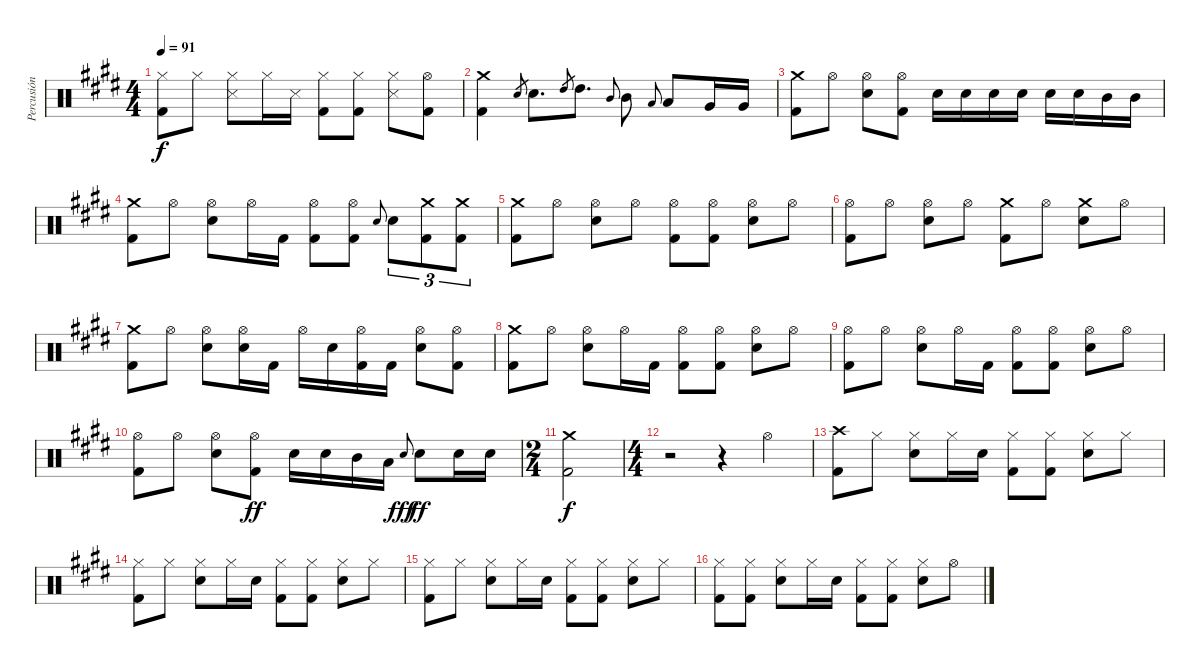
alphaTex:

\track ("Percusión" "Percusión") {instrument percussion}
\staff {score}
\articulation defaults
\ts (4 4)
\tempo 91
\clef neutral
\ks c#minor
("Hi-Hat (closed)" "Kick (hit) 2").8{dy f} "Hi-Hat (closed)".8 ("Hi-Hat (closed)" "Metronome (hit)").8 "Hi-Hat (closed)".16 "Metronome (hit)".16 ("Hi-Hat (closed)" "Kick (hit) 2").8 ("Hi-Hat (closed)" "Kick (hit) 2").8 ("Hi-Hat (closed)" "Metronome (hit)").8 ("Hi-Hat (open)" "Kick (hit) 2").8 |
("Crash medium (hit)" "Kick (hit) 2").4 "Electric Snare (hit)".8{gr} "Electric Snare (hit)".8{d} "High Tom (hit)".8{gr} "High Tom (hit)".8{d} "Mid Tom (hit)".8{gr onbeat} "Mid Tom (hit)".8 "Low Tom (hit)".8{gr onbeat} "Low Tom (hit)".8 "Very Low Tom (hit)".16 "Very Low Tom (hit)".16 |
("Crash medium (hit)" "Kick (hit) 2").8 "Hi-Hat (open)".8 ("Hi-Hat (open)" "Electric Snare (hit)").8 ("Hi-Hat (open)" "Kick (hit) 2").8 "Electric Snare (hit)".16 "Electric Snare (hit)".16 "Electric Snare (hit)".16 "Electric Snare (hit)".16 "Electric Snare (hit)".16 "Electric Snare (hit)".16 "Mid Tom (hit)".16 "Mid Tom (hit)".16 |
("Crash medium (hit)" "Kick (hit) 2").8 "Hi-Hat (open)".8 ("Hi-Hat (open)" "Electric Snare (hit)").8 "Hi-Hat (open)".16 "Kick (hit) 2".16 ("Hi-Hat (open)" "Kick (hit) 2").8 ("Hi-Hat (open)" "Kick (hit) 2").8 "Electric Snare (hit)".8{gr onbeat} "Electric Snare (hit)".8{tu (3 2)} ("Crash medium (hit)" "Kick (hit) 2").8{tu (3 2)} ("Crash medium (hit)" "Kick (hit) 2").8{tu (3 2)} |
("Crash medium (hit)" "Kick (hit) 2").8 "Hi-Hat (open)".8 ("Hi-Hat (open)" "Electric Snare (hit)").8 "Hi-Hat (open)".8 ("Hi-Hat (open)" "Kick (hit) 2").8 ("Hi-Hat (open)" "Kick (hit) 2").8 ("Hi-Hat (open)" "Electric Snare (hit)").8 "Hi-Hat (open)".8 |
\ks e
("Hi-Hat (open)" "Kick (hit) 2").8 "Hi-Hat (open)".8 ("Hi-Hat (open)" "Electric Snare (hit)").8 "Hi-Hat (open)".8 ("Crash medium (hit)" "Kick (hit) 2").8 "Hi-Hat (open)".8 ("Crash medium (hit)" "Electric Snare (hit)").8 "Hi-Hat (open)".8 |
\ks c#minor
("Crash medium (hit)" "Kick (hit) 2").8 "Hi-Hat (open)".8 ("Hi-Hat (open)" "Electric Snare (hit)").8 ("Hi-Hat (open)" "Electric Snare (hit)").16 "Kick (hit) 2".16 "Hi-Hat (open)".16 "Electric Snare (hit)".16 ("Hi-Hat (open)" "Kick (hit) 2").16 "Kick (hit) 2".16 ("Hi-Hat (open)" "Electric Snare (hit)").8 ("Hi-Hat (open)" "Kick (hit) 2").8 |
("Crash medium (hit)" "Kick (hit) 2").8 "Hi-Hat (open)".8 ("Hi-Hat (open)" "Electric Snare (hit)").8 "Hi-Hat (open)".16 "Kick (hit) 2".16 ("Hi-Hat (open)" "Kick (hit) 2").8 ("Hi-Hat (open)" "Kick (hit) 2").8 ("Hi-Hat (open)" "Electric Snare (hit)").8 "Hi-Hat (open)".8 |
\ks e
("Hi-Hat (open)" "Kick (hit) 2").8 "Hi-Hat (open)".8 ("Hi-Hat (open)" "Electric Snare (hit)").8 "Hi-Hat (open)".16 "Kick (hit) 2".16 ("Hi-Hat (open)" "Kick (hit) 2").8 ("Hi-Hat (open)" "Kick (hit) 2").8 ("Hi-Hat (open)" "Electric Snare (hit)").8 "Hi-Hat (open)".8 |
\ks c#minor
("Hi-Hat (open)" "Kick (hit) 2").8 "Hi-Hat (open)".8 ("Hi-Hat (open)" "Electric Snare (hit)").8 ("Hi-Hat (open)" "Kick (hit) 2").8{dy ff} "Electric Snare (hit)".16 "Electric Snare (hit)".16 "Mid Tom (hit)".16 "Low Tom (hit)".16 "Electric Snare (hit)".8{gr onbeat dy fff} "Electric Snare (hit)".8{dy ff} "Electric Snare (hit)".16 "Electric Snare (hit)".16 |
\ts (2 4)
("Crash medium (hit)" "Kick (hit) 2").2{dy f volume 0} |
\ts (4 4)
r.2 r.4{volume 7} "Hi-Hat (open)".4 |
("Crash high (hit)" "Kick (hit) 2").8{volume 7} "Hi-Hat (closed)".8 ("Hi-Hat (closed)" "Electric Snare (hit)").8 "Hi-Hat (closed)".16 "Electric Snare (hit)".16 ("Hi-Hat (closed)" "Kick (hit) 2").8 ("Hi-Hat (closed)" "Kick (hit) 2").8 ("Hi-Hat (closed)" "Electric Snare (hit)").8 "Hi-Hat (closed)".8 |
("Hi-Hat (closed)" "Kick (hit) 2").8 "Hi-Hat (closed)".8 ("Hi-Hat (closed)" "Electric Snare (hit)").8 "Hi-Hat (closed)".16 "Electric Snare (hit)".16 ("Hi-Hat (closed)" "Kick (hit) 2").8 ("Hi-Hat (closed)" "Kick (hit) 2").8 ("Hi-Hat (closed)" "Electric Snare (hit)").8 "Hi-Hat (closed)".8 |
("Hi-Hat (closed)" "Kick (hit) 2").8 "Hi-Hat (closed)".8 ("Hi-Hat (closed)" "Electric Snare (hit)").8 "Hi-Hat (closed)".16 "Electric Snare (hit)".16 ("Hi-Hat (closed)" "Kick (hit) 2").8 ("Hi-Hat (closed)" "Kick (hit) 2").8 ("Hi-Hat (closed)" "Electric Snare (hit)").8 "Hi-Hat (closed)".8 |
\ks e
("Hi-Hat (closed)" "Kick (hit) 2").8 ("Hi-Hat (closed)" "Kick (hit) 2").8 ("Hi-Hat (closed)" "Electric Snare (hit)").8 "Hi-Hat (closed)".16 "Electric Snare (hit)".16 ("Hi-Hat (closed)" "Kick (hit) 2").8 ("Hi-Hat (closed)" "Kick (hit) 2").8 ("Hi-Hat (closed)" "Electric Snare (hit)").8 "Hi-Hat (open)".8
